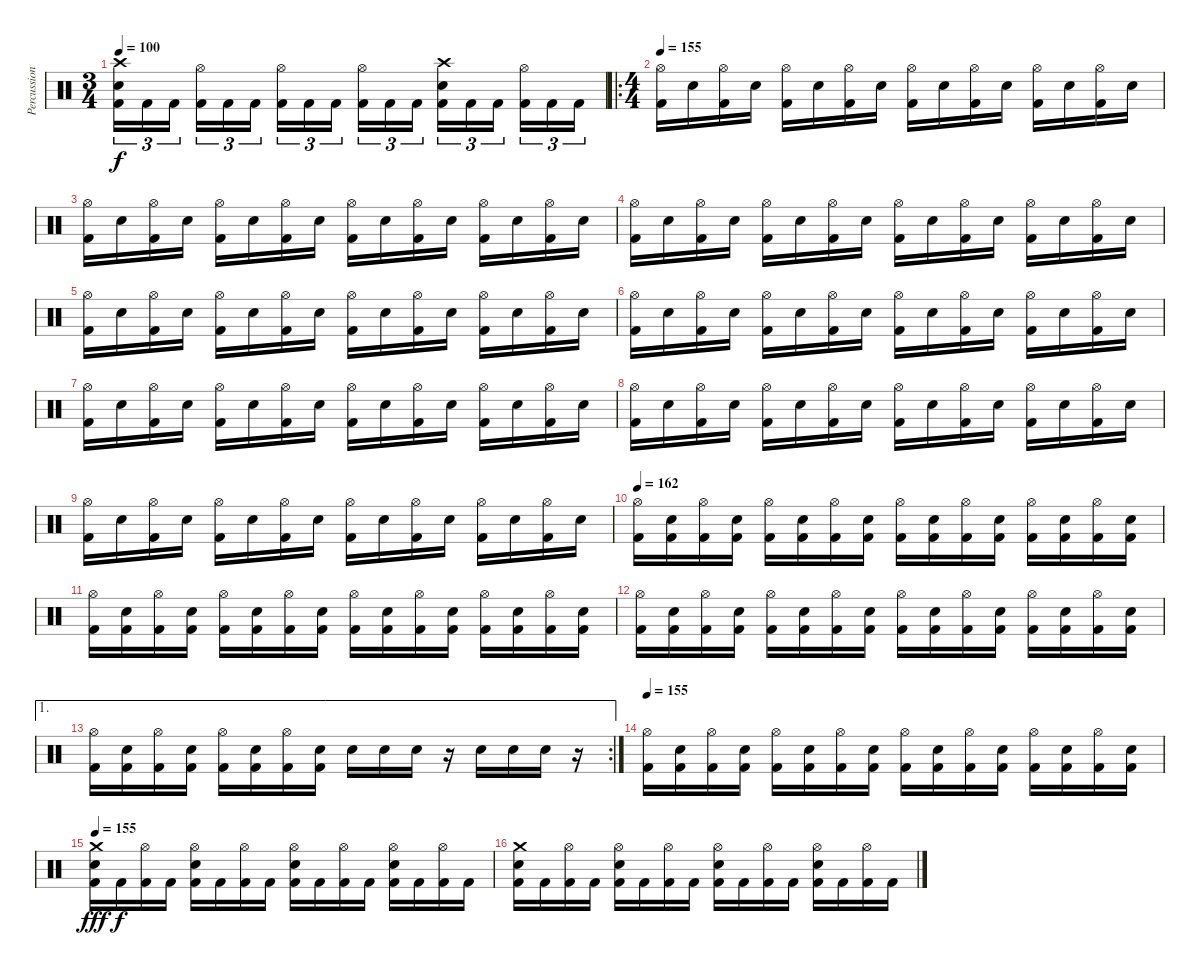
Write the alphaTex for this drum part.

\track ("Percussion" "Percussion") {instrument percussion}
\staff {score}
\articulation defaults
\ts (3 4)
\tempo 100
\clef neutral
\ks c
("Crash high (hit)" "Electric Snare (hit)" "Kick (hit) 2").16{tu (3 2) dy f} "Kick (hit) 2".16{tu (3 2)} "Kick (hit) 2".16{tu (3 2)} ("Hi-Hat (open)" "Kick (hit) 2").16{tu (3 2)} "Kick (hit) 2".16{tu (3 2)} "Kick (hit) 2".16{tu (3 2)} ("Hi-Hat (open)" "Kick (hit) 2").16{tu (3 2)} "Kick (hit) 2".16{tu (3 2)} "Kick (hit) 2".16{tu (3 2)} ("Hi-Hat (open)" "Kick (hit) 2").16{tu (3 2)} "Kick (hit) 2".16{tu (3 2)} "Kick (hit) 2".16{tu (3 2)} ("Crash high (hit)" "Electric Snare (hit)" "Kick (hit) 2").16{tu (3 2)} "Kick (hit) 2".16{tu (3 2)} "Kick (hit) 2".16{tu (3 2)} ("Hi-Hat (open)" "Kick (hit) 2").16{tu (3 2)} "Kick (hit) 2".16{tu (3 2)} "Kick (hit) 2".16{tu (3 2)} |
\ro
\ts (4 4)
\tempo 155
("Hi-Hat (open)" "Kick (hit) 2").16 "Electric Snare (hit)".16 ("Hi-Hat (open)" "Kick (hit) 2").16 "Electric Snare (hit)".16 ("Hi-Hat (open)" "Kick (hit) 2").16 "Electric Snare (hit)".16 ("Hi-Hat (open)" "Kick (hit) 2").16 "Electric Snare (hit)".16 ("Hi-Hat (open)" "Kick (hit) 2").16 "Electric Snare (hit)".16 ("Hi-Hat (open)" "Kick (hit) 2").16 "Electric Snare (hit)".16 ("Hi-Hat (open)" "Kick (hit) 2").16 "Electric Snare (hit)".16 ("Hi-Hat (open)" "Kick (hit) 2").16 "Electric Snare (hit)".16 |
("Hi-Hat (open)" "Kick (hit) 2").16 "Electric Snare (hit)".16 ("Hi-Hat (open)" "Kick (hit) 2").16 "Electric Snare (hit)".16 ("Hi-Hat (open)" "Kick (hit) 2").16 "Electric Snare (hit)".16 ("Hi-Hat (open)" "Kick (hit) 2").16 "Electric Snare (hit)".16 ("Hi-Hat (open)" "Kick (hit) 2").16 "Electric Snare (hit)".16 ("Hi-Hat (open)" "Kick (hit) 2").16 "Electric Snare (hit)".16 ("Hi-Hat (open)" "Kick (hit) 2").16 "Electric Snare (hit)".16 ("Hi-Hat (open)" "Kick (hit) 2").16 "Electric Snare (hit)".16 |
("Hi-Hat (open)" "Kick (hit) 2").16 "Electric Snare (hit)".16 ("Hi-Hat (open)" "Kick (hit) 2").16 "Electric Snare (hit)".16 ("Hi-Hat (open)" "Kick (hit) 2").16 "Electric Snare (hit)".16 ("Hi-Hat (open)" "Kick (hit) 2").16 "Electric Snare (hit)".16 ("Hi-Hat (open)" "Kick (hit) 2").16 "Electric Snare (hit)".16 ("Hi-Hat (open)" "Kick (hit) 2").16 "Electric Snare (hit)".16 ("Hi-Hat (open)" "Kick (hit) 2").16 "Electric Snare (hit)".16 ("Hi-Hat (open)" "Kick (hit) 2").16 "Electric Snare (hit)".16 |
("Hi-Hat (open)" "Kick (hit) 2").16 "Electric Snare (hit)".16 ("Hi-Hat (open)" "Kick (hit) 2").16 "Electric Snare (hit)".16 ("Hi-Hat (open)" "Kick (hit) 2").16 "Electric Snare (hit)".16 ("Hi-Hat (open)" "Kick (hit) 2").16 "Electric Snare (hit)".16 ("Hi-Hat (open)" "Kick (hit) 2").16 "Electric Snare (hit)".16 ("Hi-Hat (open)" "Kick (hit) 2").16 "Electric Snare (hit)".16 ("Hi-Hat (open)" "Kick (hit) 2").16 "Electric Snare (hit)".16 ("Hi-Hat (open)" "Kick (hit) 2").16 "Electric Snare (hit)".16 |
("Hi-Hat (open)" "Kick (hit) 2").16 "Electric Snare (hit)".16 ("Hi-Hat (open)" "Kick (hit) 2").16 "Electric Snare (hit)".16 ("Hi-Hat (open)" "Kick (hit) 2").16 "Electric Snare (hit)".16 ("Hi-Hat (open)" "Kick (hit) 2").16 "Electric Snare (hit)".16 ("Hi-Hat (open)" "Kick (hit) 2").16 "Electric Snare (hit)".16 ("Hi-Hat (open)" "Kick (hit) 2").16 "Electric Snare (hit)".16 ("Hi-Hat (open)" "Kick (hit) 2").16 "Electric Snare (hit)".16 ("Hi-Hat (open)" "Kick (hit) 2").16 "Electric Snare (hit)".16 |
("Hi-Hat (open)" "Kick (hit) 2").16 "Electric Snare (hit)".16 ("Hi-Hat (open)" "Kick (hit) 2").16 "Electric Snare (hit)".16 ("Hi-Hat (open)" "Kick (hit) 2").16 "Electric Snare (hit)".16 ("Hi-Hat (open)" "Kick (hit) 2").16 "Electric Snare (hit)".16 ("Hi-Hat (open)" "Kick (hit) 2").16 "Electric Snare (hit)".16 ("Hi-Hat (open)" "Kick (hit) 2").16 "Electric Snare (hit)".16 ("Hi-Hat (open)" "Kick (hit) 2").16 "Electric Snare (hit)".16 ("Hi-Hat (open)" "Kick (hit) 2").16 "Electric Snare (hit)".16 |
("Hi-Hat (open)" "Kick (hit) 2").16 "Electric Snare (hit)".16 ("Hi-Hat (open)" "Kick (hit) 2").16 "Electric Snare (hit)".16 ("Hi-Hat (open)" "Kick (hit) 2").16 "Electric Snare (hit)".16 ("Hi-Hat (open)" "Kick (hit) 2").16 "Electric Snare (hit)".16 ("Hi-Hat (open)" "Kick (hit) 2").16 "Electric Snare (hit)".16 ("Hi-Hat (open)" "Kick (hit) 2").16 "Electric Snare (hit)".16 ("Hi-Hat (open)" "Kick (hit) 2").16 "Electric Snare (hit)".16 ("Hi-Hat (open)" "Kick (hit) 2").16 "Electric Snare (hit)".16 |
("Hi-Hat (open)" "Kick (hit) 2").16 "Electric Snare (hit)".16 ("Hi-Hat (open)" "Kick (hit) 2").16 "Electric Snare (hit)".16 ("Hi-Hat (open)" "Kick (hit) 2").16 "Electric Snare (hit)".16 ("Hi-Hat (open)" "Kick (hit) 2").16 "Electric Snare (hit)".16 ("Hi-Hat (open)" "Kick (hit) 2").16 "Electric Snare (hit)".16 ("Hi-Hat (open)" "Kick (hit) 2").16 "Electric Snare (hit)".16 ("Hi-Hat (open)" "Kick (hit) 2").16 "Electric Snare (hit)".16 ("Hi-Hat (open)" "Kick (hit) 2").16 "Electric Snare (hit)".16 |
\tempo 162
("Hi-Hat (open)" "Kick (hit) 2").16 ("Electric Snare (hit)" "Kick (hit) 2").16 ("Hi-Hat (open)" "Kick (hit) 2").16 ("Electric Snare (hit)" "Kick (hit) 2").16 ("Hi-Hat (open)" "Kick (hit) 2").16 ("Electric Snare (hit)" "Kick (hit) 2").16 ("Hi-Hat (open)" "Kick (hit) 2").16 ("Electric Snare (hit)" "Kick (hit) 2").16 ("Hi-Hat (open)" "Kick (hit) 2").16 ("Electric Snare (hit)" "Kick (hit) 2").16 ("Hi-Hat (open)" "Kick (hit) 2").16 ("Electric Snare (hit)" "Kick (hit) 2").16 ("Hi-Hat (open)" "Kick (hit) 2").16 ("Electric Snare (hit)" "Kick (hit) 2").16 ("Hi-Hat (open)" "Kick (hit) 2").16 ("Electric Snare (hit)" "Kick (hit) 2").16 |
("Hi-Hat (open)" "Kick (hit) 2").16 ("Electric Snare (hit)" "Kick (hit) 2").16 ("Hi-Hat (open)" "Kick (hit) 2").16 ("Electric Snare (hit)" "Kick (hit) 2").16 ("Hi-Hat (open)" "Kick (hit) 2").16 ("Electric Snare (hit)" "Kick (hit) 2").16 ("Hi-Hat (open)" "Kick (hit) 2").16 ("Electric Snare (hit)" "Kick (hit) 2").16 ("Hi-Hat (open)" "Kick (hit) 2").16 ("Electric Snare (hit)" "Kick (hit) 2").16 ("Hi-Hat (open)" "Kick (hit) 2").16 ("Electric Snare (hit)" "Kick (hit) 2").16 ("Hi-Hat (open)" "Kick (hit) 2").16 ("Electric Snare (hit)" "Kick (hit) 2").16 ("Hi-Hat (open)" "Kick (hit) 2").16 ("Electric Snare (hit)" "Kick (hit) 2").16 |
("Hi-Hat (open)" "Kick (hit) 2").16 ("Electric Snare (hit)" "Kick (hit) 2").16 ("Hi-Hat (open)" "Kick (hit) 2").16 ("Electric Snare (hit)" "Kick (hit) 2").16 ("Hi-Hat (open)" "Kick (hit) 2").16 ("Electric Snare (hit)" "Kick (hit) 2").16 ("Hi-Hat (open)" "Kick (hit) 2").16 ("Electric Snare (hit)" "Kick (hit) 2").16 ("Hi-Hat (open)" "Kick (hit) 2").16 ("Electric Snare (hit)" "Kick (hit) 2").16 ("Hi-Hat (open)" "Kick (hit) 2").16 ("Electric Snare (hit)" "Kick (hit) 2").16 ("Hi-Hat (open)" "Kick (hit) 2").16 ("Electric Snare (hit)" "Kick (hit) 2").16 ("Hi-Hat (open)" "Kick (hit) 2").16 ("Electric Snare (hit)" "Kick (hit) 2").16 |
\ae 1
\rc 2
("Hi-Hat (open)" "Kick (hit) 2").16 ("Electric Snare (hit)" "Kick (hit) 2").16 ("Hi-Hat (open)" "Kick (hit) 2").16 ("Electric Snare (hit)" "Kick (hit) 2").16 ("Hi-Hat (open)" "Kick (hit) 2").16 ("Electric Snare (hit)" "Kick (hit) 2").16 ("Hi-Hat (open)" "Kick (hit) 2").16 ("Electric Snare (hit)" "Kick (hit) 2").16 "Electric Snare (hit)".16 "Electric Snare (hit)".16 "Electric Snare (hit)".16 r.16 "Electric Snare (hit)".16 "Electric Snare (hit)".16 "Electric Snare (hit)".16 r.16 |
\tempo 155
("Hi-Hat (open)" "Kick (hit) 2").16 ("Electric Snare (hit)" "Kick (hit) 2").16 ("Hi-Hat (open)" "Kick (hit) 2").16 ("Electric Snare (hit)" "Kick (hit) 2").16 ("Hi-Hat (open)" "Kick (hit) 2").16 ("Electric Snare (hit)" "Kick (hit) 2").16 ("Hi-Hat (open)" "Kick (hit) 2").16 ("Electric Snare (hit)" "Kick (hit) 2").16 ("Hi-Hat (open)" "Kick (hit) 2").16 ("Electric Snare (hit)" "Kick (hit) 2").16 ("Hi-Hat (open)" "Kick (hit) 2").16 ("Electric Snare (hit)" "Kick (hit) 2").16 ("Hi-Hat (open)" "Kick (hit) 2").16 ("Electric Snare (hit)" "Kick (hit) 2").16 ("Hi-Hat (open)" "Kick (hit) 2").16 ("Electric Snare (hit)" "Kick (hit) 2").16 |
\tempo 155
("Crash medium (hit)" "Electric Snare (hit)" "Kick (hit) 2").16{dy fff} "Kick (hit) 2".16{dy f} ("Hi-Hat (open)" "Kick (hit) 2").16 "Kick (hit) 2".16 ("Hi-Hat (open)" "Electric Snare (hit)" "Kick (hit) 2").16 "Kick (hit) 2".16 ("Hi-Hat (open)" "Kick (hit) 2").16 "Kick (hit) 2".16 ("Hi-Hat (open)" "Electric Snare (hit)" "Kick (hit) 2").16 "Kick (hit) 2".16 ("Hi-Hat (open)" "Kick (hit) 2").16 "Kick (hit) 2".16 ("Hi-Hat (open)" "Electric Snare (hit)" "Kick (hit) 2").16 "Kick (hit) 2".16 ("Hi-Hat (open)" "Kick (hit) 2").16 "Kick (hit) 2".16 |
("Crash medium (hit)" "Electric Snare (hit)" "Kick (hit) 2").16 "Kick (hit) 2".16 ("Hi-Hat (open)" "Kick (hit) 2").16 "Kick (hit) 2".16 ("Hi-Hat (open)" "Electric Snare (hit)" "Kick (hit) 2").16 "Kick (hit) 2".16 ("Hi-Hat (open)" "Kick (hit) 2").16 "Kick (hit) 2".16 ("Hi-Hat (open)" "Electric Snare (hit)" "Kick (hit) 2").16 "Kick (hit) 2".16 ("Hi-Hat (open)" "Kick (hit) 2").16 "Kick (hit) 2".16 ("Hi-Hat (open)" "Electric Snare (hit)" "Kick (hit) 2").16 "Kick (hit) 2".16 ("Hi-Hat (open)" "Kick (hit) 2").16 "Kick (hit) 2".16
